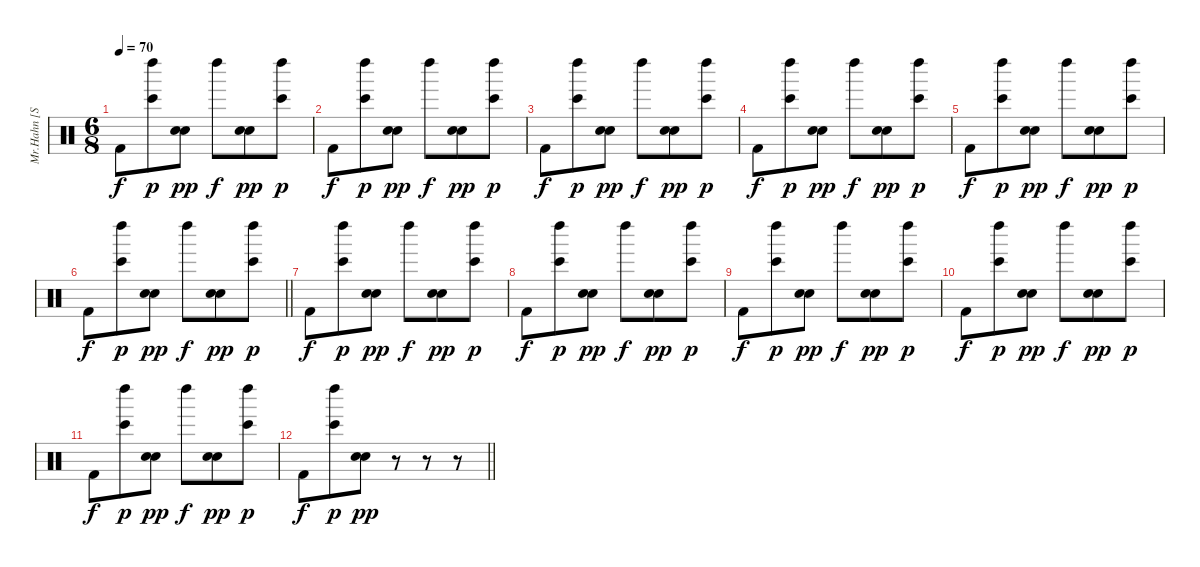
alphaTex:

\track ("Mr.Hahn [Sampler 4 Digital Drums]" "Mr.Hahn [S") {instrument percussion}
\staff {score}
\articulation defaults
\ts (6 8)
\tempo 70
\clef neutral
\ks c "Kick (hit) 2".8{dy f}
("Left Maraca (hit)" "Bongo High (hit)").8{dy p} ("Snare (hit) 2" "Electric Snare (hit)").8{dy pp} "Left Maraca (hit)".8{dy f} ("Snare (hit) 2" "Electric Snare (hit)").8{dy pp} ("Left Maraca (hit)" "Bongo High (hit)").8{dy p} |
"Kick (hit) 2".8{dy f} ("Left Maraca (hit)" "Bongo High (hit)").8{dy p} ("Snare (hit) 2" "Electric Snare (hit)").8{dy pp} "Left Maraca (hit)".8{dy f} ("Snare (hit) 2" "Electric Snare (hit)").8{dy pp} ("Left Maraca (hit)" "Bongo High (hit)").8{dy p} |
"Kick (hit) 2".8{dy f} ("Left Maraca (hit)" "Bongo High (hit)").8{dy p} ("Snare (hit) 2" "Electric Snare (hit)").8{dy pp} "Left Maraca (hit)".8{dy f} ("Snare (hit) 2" "Electric Snare (hit)").8{dy pp} ("Left Maraca (hit)" "Bongo High (hit)").8{dy p} |
"Kick (hit) 2".8{dy f} ("Left Maraca (hit)" "Bongo High (hit)").8{dy p} ("Snare (hit) 2" "Electric Snare (hit)").8{dy pp} "Left Maraca (hit)".8{dy f} ("Snare (hit) 2" "Electric Snare (hit)").8{dy pp} ("Left Maraca (hit)" "Bongo High (hit)").8{dy p} |
"Kick (hit) 2".8{dy f} ("Left Maraca (hit)" "Bongo High (hit)").8{dy p} ("Snare (hit) 2" "Electric Snare (hit)").8{dy pp} "Left Maraca (hit)".8{dy f} ("Snare (hit) 2" "Electric Snare (hit)").8{dy pp} ("Left Maraca (hit)" "Bongo High (hit)").8{dy p} |
\barLineRight lightlight "Kick (hit) 2".8{dy f}
("Left Maraca (hit)" "Bongo High (hit)").8{dy p} ("Snare (hit) 2" "Electric Snare (hit)").8{dy pp} "Left Maraca (hit)".8{dy f} ("Snare (hit) 2" "Electric Snare (hit)").8{dy pp} ("Left Maraca (hit)" "Bongo High (hit)").8{dy p} |
"Kick (hit) 2".8{dy f} ("Left Maraca (hit)" "Bongo High (hit)").8{dy p} ("Snare (hit) 2" "Electric Snare (hit)").8{dy pp} "Left Maraca (hit)".8{dy f} ("Snare (hit) 2" "Electric Snare (hit)").8{dy pp} ("Left Maraca (hit)" "Bongo High (hit)").8{dy p} |
"Kick (hit) 2".8{dy f} ("Left Maraca (hit)" "Bongo High (hit)").8{dy p} ("Snare (hit) 2" "Electric Snare (hit)").8{dy pp} "Left Maraca (hit)".8{dy f} ("Snare (hit) 2" "Electric Snare (hit)").8{dy pp} ("Left Maraca (hit)" "Bongo High (hit)").8{dy p} |
"Kick (hit) 2".8{dy f} ("Left Maraca (hit)" "Bongo High (hit)").8{dy p} ("Snare (hit) 2" "Electric Snare (hit)").8{dy pp} "Left Maraca (hit)".8{dy f} ("Snare (hit) 2" "Electric Snare (hit)").8{dy pp} ("Left Maraca (hit)" "Bongo High (hit)").8{dy p} |
"Kick (hit) 2".8{dy f} ("Left Maraca (hit)" "Bongo High (hit)").8{dy p} ("Snare (hit) 2" "Electric Snare (hit)").8{dy pp} "Left Maraca (hit)".8{dy f} ("Snare (hit) 2" "Electric Snare (hit)").8{dy pp} ("Left Maraca (hit)" "Bongo High (hit)").8{dy p} |
"Kick (hit) 2".8{dy f} ("Left Maraca (hit)" "Bongo High (hit)").8{dy p} ("Snare (hit) 2" "Electric Snare (hit)").8{dy pp} "Left Maraca (hit)".8{dy f} ("Snare (hit) 2" "Electric Snare (hit)").8{dy pp} ("Left Maraca (hit)" "Bongo High (hit)").8{dy p} |
\barLineRight lightlight "Kick (hit) 2".8{dy f}
("Left Maraca (hit)" "Bongo High (hit)").8{dy p} ("Snare (hit) 2" "Electric Snare (hit)").8{dy pp} r.8 r.8 r.8
